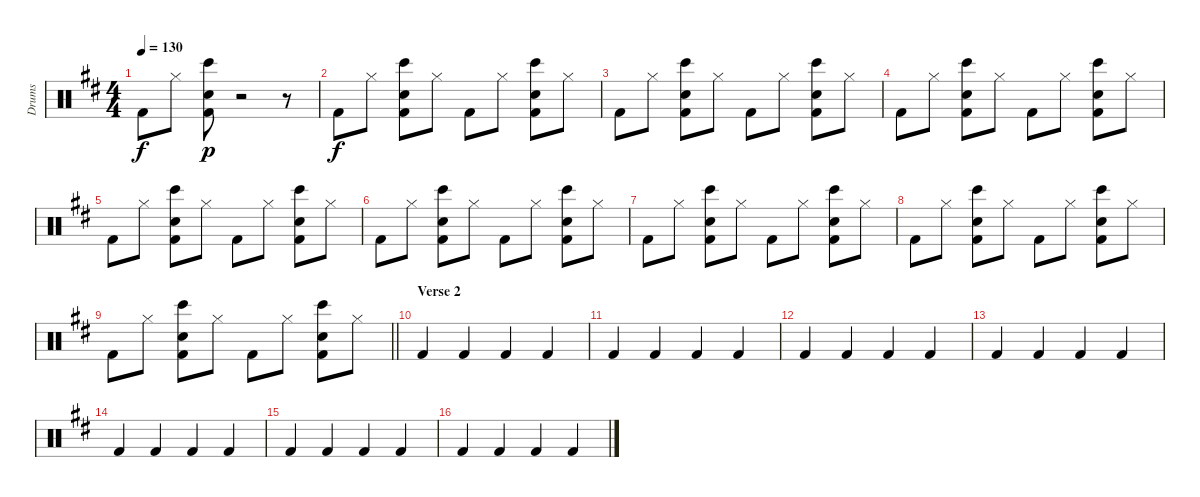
\track ("Drums" "Drums") {instrument percussion}
\staff {score}
\articulation defaults
\ts (4 4)
\tempo 130
\clef neutral
\ks d "Kick (hit) 2".8{dy f} "Hi-Hat (closed)".8
("Electric Snare (hit)" "Bongo High (hit)" "Kick (hit) 2").8{dy p} r.2 r.8 |
"Kick (hit) 2".8{dy f} "Hi-Hat (closed)".8 ("Electric Snare (hit)" "Bongo High (hit)" "Kick (hit) 2").8 "Hi-Hat (closed)".8 "Kick (hit) 2".8 "Hi-Hat (closed)".8 ("Electric Snare (hit)" "Bongo High (hit)" "Kick (hit) 2").8 "Hi-Hat (closed)".8 |
"Kick (hit) 2".8 "Hi-Hat (closed)".8 ("Electric Snare (hit)" "Bongo High (hit)" "Kick (hit) 2").8 "Hi-Hat (closed)".8 "Kick (hit) 2".8 "Hi-Hat (closed)".8 ("Electric Snare (hit)" "Bongo High (hit)" "Kick (hit) 2").8 "Hi-Hat (closed)".8 |
"Kick (hit) 2".8 "Hi-Hat (closed)".8 ("Electric Snare (hit)" "Bongo High (hit)" "Kick (hit) 2").8 "Hi-Hat (closed)".8 "Kick (hit) 2".8 "Hi-Hat (closed)".8 ("Electric Snare (hit)" "Bongo High (hit)" "Kick (hit) 2").8 "Hi-Hat (closed)".8 |
"Kick (hit) 2".8 "Hi-Hat (closed)".8 ("Electric Snare (hit)" "Bongo High (hit)" "Kick (hit) 2").8 "Hi-Hat (closed)".8 "Kick (hit) 2".8 "Hi-Hat (closed)".8 ("Electric Snare (hit)" "Bongo High (hit)" "Kick (hit) 2").8 "Hi-Hat (closed)".8 |
"Kick (hit) 2".8 "Hi-Hat (closed)".8 ("Electric Snare (hit)" "Bongo High (hit)" "Kick (hit) 2").8 "Hi-Hat (closed)".8 "Kick (hit) 2".8 "Hi-Hat (closed)".8 ("Electric Snare (hit)" "Bongo High (hit)" "Kick (hit) 2").8 "Hi-Hat (closed)".8 |
"Kick (hit) 2".8 "Hi-Hat (closed)".8 ("Electric Snare (hit)" "Bongo High (hit)" "Kick (hit) 2").8 "Hi-Hat (closed)".8 "Kick (hit) 2".8 "Hi-Hat (closed)".8 ("Electric Snare (hit)" "Bongo High (hit)" "Kick (hit) 2").8 "Hi-Hat (closed)".8 |
"Kick (hit) 2".8 "Hi-Hat (closed)".8 ("Electric Snare (hit)" "Bongo High (hit)" "Kick (hit) 2").8 "Hi-Hat (closed)".8 "Kick (hit) 2".8 "Hi-Hat (closed)".8 ("Electric Snare (hit)" "Bongo High (hit)" "Kick (hit) 2").8 "Hi-Hat (closed)".8 |
\barLineRight lightlight "Kick (hit) 2".8 "Hi-Hat (closed)".8
("Electric Snare (hit)" "Bongo High (hit)" "Kick (hit) 2").8 "Hi-Hat (closed)".8 "Kick (hit) 2".8 "Hi-Hat (closed)".8 ("Electric Snare (hit)" "Bongo High (hit)" "Kick (hit) 2").8 "Hi-Hat (closed)".8 |
\section ("" "Verse 2")
"Kick (hit) 2".4 "Kick (hit) 2".4 "Kick (hit) 2".4 "Kick (hit) 2".4 |
"Kick (hit) 2".4 "Kick (hit) 2".4 "Kick (hit) 2".4 "Kick (hit) 2".4 |
"Kick (hit) 2".4 "Kick (hit) 2".4 "Kick (hit) 2".4 "Kick (hit) 2".4 |
"Kick (hit) 2".4 "Kick (hit) 2".4 "Kick (hit) 2".4 "Kick (hit) 2".4 |
"Kick (hit) 2".4 "Kick (hit) 2".4 "Kick (hit) 2".4 "Kick (hit) 2".4 |
"Kick (hit) 2".4 "Kick (hit) 2".4 "Kick (hit) 2".4 "Kick (hit) 2".4 |
"Kick (hit) 2".4 "Kick (hit) 2".4 "Kick (hit) 2".4 "Kick (hit) 2".4
